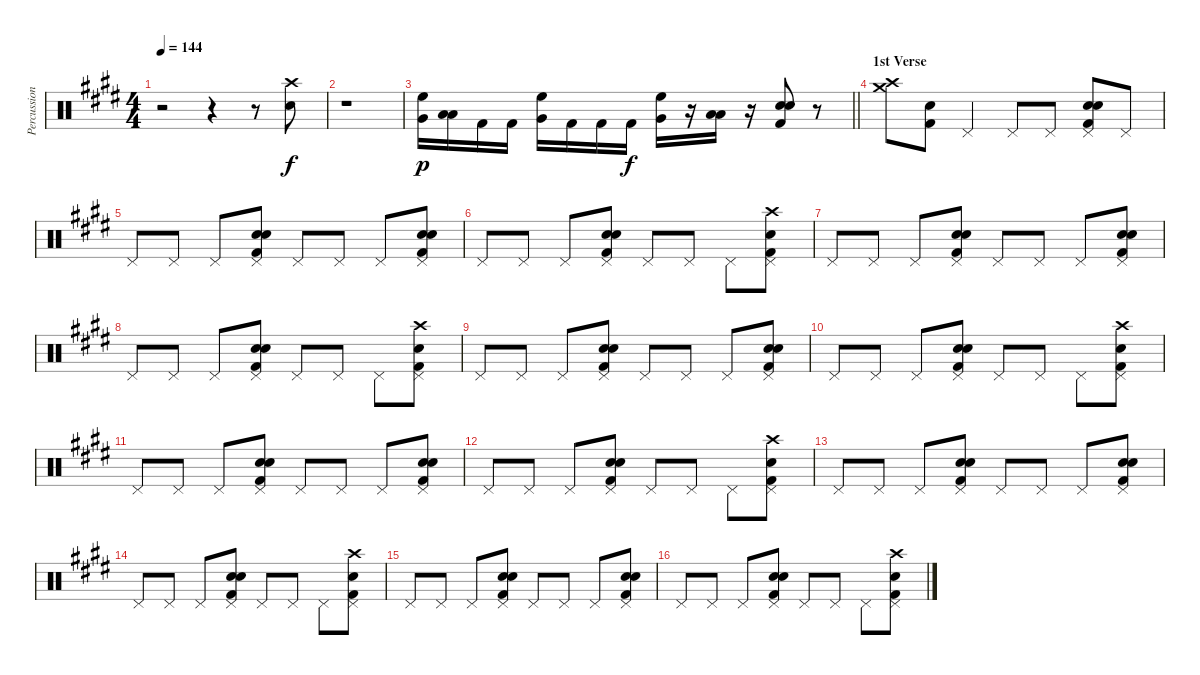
\track ("Percussion" "Percussion") {instrument percussion}
\staff {score}
\articulation defaults
\ts (4 4)
\tempo 144
\clef neutral
\ks e
r.2{dy f} r.4 r.8 ("Crash high (hit)" "Snare (hit) 2").8 |
\ks c#minor
r.1 |
\barLineRight lightlight
("Very Low Tom (hit)" "High Floor Tom (hit)").16{dy p} ("Low Floor Tom (hit)" "Low Tom (hit)").16 "Kick (hit) 2".16 "Kick (hit) 2".16 ("Very Low Tom (hit)" "High Floor Tom (hit)").16 "Kick (hit) 2".16 "Kick (hit) 2".16 "Kick (hit) 2".16{dy f} ("Very Low Tom (hit)" "High Floor Tom (hit)").16 r.16 ("Low Floor Tom (hit)" "Low Tom (hit)").16 r.16 ("Snare (hit) 2" "Snare (hit) 2" "Kick (hit) 2").8 r.8 |
\section ("" "1st Verse")
("Crash high (hit)" "Crash medium (hit)").8 ("Snare (hit) 2" "Kick (hit) 2").8 "Pedal Hi-Hat (hit)".4 "Pedal Hi-Hat (hit)".8 "Pedal Hi-Hat (hit)".8 ("Pedal Hi-Hat (hit)" "Snare (hit) 2" "Snare (hit) 2" "Kick (hit) 2").8 "Pedal Hi-Hat (hit)".8 |
\ks e "Pedal Hi-Hat (hit)".8 "Pedal Hi-Hat (hit)".8 "Pedal Hi-Hat (hit)".8
("Pedal Hi-Hat (hit)" "Snare (hit) 2" "Snare (hit) 2" "Kick (hit) 2").8 "Pedal Hi-Hat (hit)".8 "Pedal Hi-Hat (hit)".8 "Pedal Hi-Hat (hit)".8 ("Pedal Hi-Hat (hit)" "Snare (hit) 2" "Snare (hit) 2" "Kick (hit) 2").8 |
\ks c#minor "Pedal Hi-Hat (hit)".8 "Pedal Hi-Hat (hit)".8 "Pedal Hi-Hat (hit)".8
("Pedal Hi-Hat (hit)" "Snare (hit) 2" "Snare (hit) 2" "Kick (hit) 2").8 "Pedal Hi-Hat (hit)".8 "Pedal Hi-Hat (hit)".8 "Pedal Hi-Hat (hit)".8 ("Pedal Hi-Hat (hit)" "Snare (hit) 2" "Crash high (hit)" "Kick (hit) 2").8 |
"Pedal Hi-Hat (hit)".8 "Pedal Hi-Hat (hit)".8 "Pedal Hi-Hat (hit)".8 ("Pedal Hi-Hat (hit)" "Snare (hit) 2" "Snare (hit) 2" "Kick (hit) 2").8 "Pedal Hi-Hat (hit)".8 "Pedal Hi-Hat (hit)".8 "Pedal Hi-Hat (hit)".8 ("Pedal Hi-Hat (hit)" "Snare (hit) 2" "Snare (hit) 2" "Kick (hit) 2").8 |
"Pedal Hi-Hat (hit)".8 "Pedal Hi-Hat (hit)".8 "Pedal Hi-Hat (hit)".8 ("Pedal Hi-Hat (hit)" "Snare (hit) 2" "Snare (hit) 2" "Kick (hit) 2").8 "Pedal Hi-Hat (hit)".8 "Pedal Hi-Hat (hit)".8 "Pedal Hi-Hat (hit)".8 ("Pedal Hi-Hat (hit)" "Snare (hit) 2" "Crash high (hit)" "Kick (hit) 2").8 |
\ks e "Pedal Hi-Hat (hit)".8 "Pedal Hi-Hat (hit)".8 "Pedal Hi-Hat (hit)".8
("Pedal Hi-Hat (hit)" "Snare (hit) 2" "Snare (hit) 2" "Kick (hit) 2").8 "Pedal Hi-Hat (hit)".8 "Pedal Hi-Hat (hit)".8 "Pedal Hi-Hat (hit)".8 ("Pedal Hi-Hat (hit)" "Snare (hit) 2" "Snare (hit) 2" "Kick (hit) 2").8 |
\ks c#minor "Pedal Hi-Hat (hit)".8 "Pedal Hi-Hat (hit)".8 "Pedal Hi-Hat (hit)".8
("Pedal Hi-Hat (hit)" "Snare (hit) 2" "Snare (hit) 2" "Kick (hit) 2").8 "Pedal Hi-Hat (hit)".8 "Pedal Hi-Hat (hit)".8 "Pedal Hi-Hat (hit)".8 ("Pedal Hi-Hat (hit)" "Snare (hit) 2" "Crash high (hit)" "Kick (hit) 2").8 |
"Pedal Hi-Hat (hit)".8 "Pedal Hi-Hat (hit)".8 "Pedal Hi-Hat (hit)".8 ("Pedal Hi-Hat (hit)" "Snare (hit) 2" "Snare (hit) 2" "Kick (hit) 2").8 "Pedal Hi-Hat (hit)".8 "Pedal Hi-Hat (hit)".8 "Pedal Hi-Hat (hit)".8 ("Pedal Hi-Hat (hit)" "Snare (hit) 2" "Snare (hit) 2" "Kick (hit) 2").8 |
"Pedal Hi-Hat (hit)".8 "Pedal Hi-Hat (hit)".8 "Pedal Hi-Hat (hit)".8 ("Pedal Hi-Hat (hit)" "Snare (hit) 2" "Snare (hit) 2" "Kick (hit) 2").8 "Pedal Hi-Hat (hit)".8 "Pedal Hi-Hat (hit)".8 "Pedal Hi-Hat (hit)".8 ("Pedal Hi-Hat (hit)" "Snare (hit) 2" "Crash high (hit)" "Kick (hit) 2").8 |
\ks e "Pedal Hi-Hat (hit)".8 "Pedal Hi-Hat (hit)".8 "Pedal Hi-Hat (hit)".8
("Pedal Hi-Hat (hit)" "Snare (hit) 2" "Snare (hit) 2" "Kick (hit) 2").8 "Pedal Hi-Hat (hit)".8 "Pedal Hi-Hat (hit)".8 "Pedal Hi-Hat (hit)".8 ("Pedal Hi-Hat (hit)" "Snare (hit) 2" "Snare (hit) 2" "Kick (hit) 2").8 |
\ks c#minor "Pedal Hi-Hat (hit)".8 "Pedal Hi-Hat (hit)".8 "Pedal Hi-Hat (hit)".8
("Pedal Hi-Hat (hit)" "Snare (hit) 2" "Snare (hit) 2" "Kick (hit) 2").8 "Pedal Hi-Hat (hit)".8 "Pedal Hi-Hat (hit)".8 "Pedal Hi-Hat (hit)".8 ("Pedal Hi-Hat (hit)" "Snare (hit) 2" "Crash high (hit)" "Kick (hit) 2").8 |
"Pedal Hi-Hat (hit)".8 "Pedal Hi-Hat (hit)".8 "Pedal Hi-Hat (hit)".8 ("Pedal Hi-Hat (hit)" "Snare (hit) 2" "Snare (hit) 2" "Kick (hit) 2").8 "Pedal Hi-Hat (hit)".8 "Pedal Hi-Hat (hit)".8 "Pedal Hi-Hat (hit)".8 ("Pedal Hi-Hat (hit)" "Snare (hit) 2" "Snare (hit) 2" "Kick (hit) 2").8 |
"Pedal Hi-Hat (hit)".8 "Pedal Hi-Hat (hit)".8 "Pedal Hi-Hat (hit)".8 ("Pedal Hi-Hat (hit)" "Snare (hit) 2" "Snare (hit) 2" "Kick (hit) 2").8 "Pedal Hi-Hat (hit)".8 "Pedal Hi-Hat (hit)".8 "Pedal Hi-Hat (hit)".8 ("Pedal Hi-Hat (hit)" "Snare (hit) 2" "Crash high (hit)" "Kick (hit) 2").8
